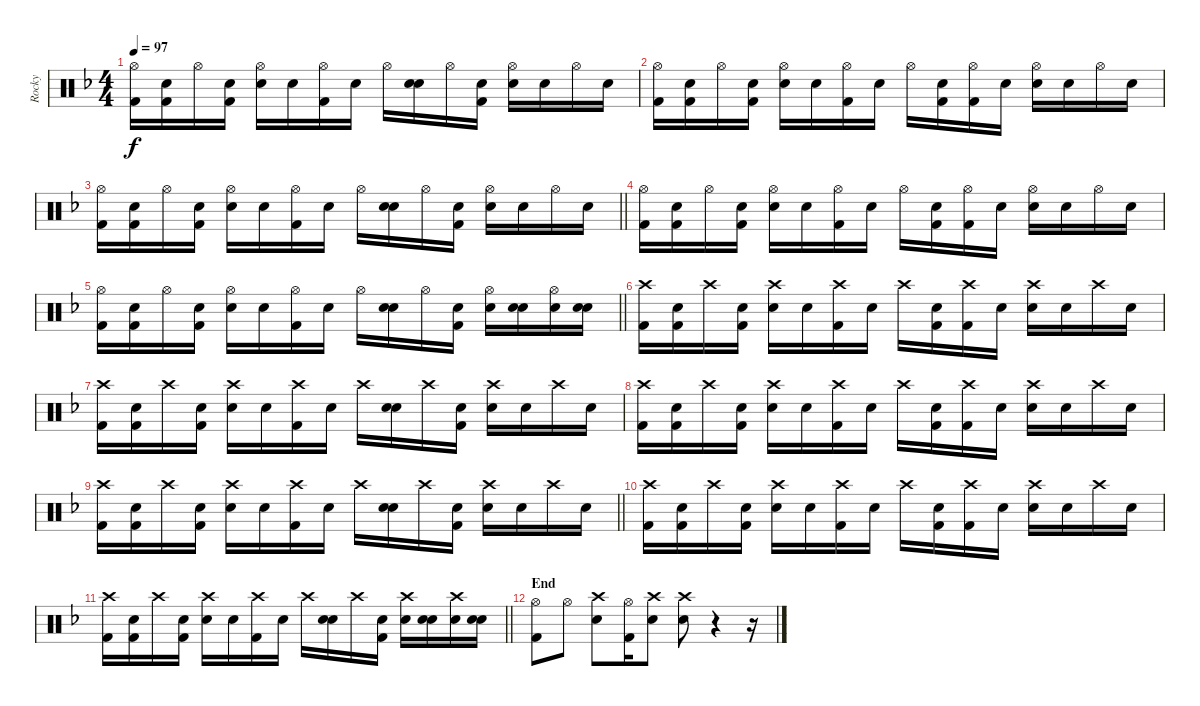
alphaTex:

\track ("Rocky" "Rocky") {instrument percussion}
\staff {score}
\articulation defaults
\ts (4 4)
\tempo 97
\clef neutral
\ks f
("Hi-Hat (open)" "Kick (hit) 2").16{dy f} ("Snare (hit)" "Kick (hit) 2").16 "Hi-Hat (open)".16 ("Snare (hit)" "Kick (hit) 2").16 ("Hi-Hat (open)" "Snare (hit) 2").16 "Snare (hit)".16 ("Hi-Hat (open)" "Kick (hit) 2").16 "Snare (hit)".16 "Hi-Hat (open)".16 ("Snare (hit)" "Snare (hit) 2").16 "Hi-Hat (open)".16 ("Snare (hit)" "Kick (hit) 2").16 ("Hi-Hat (open)" "Snare (hit) 2").16 "Snare (hit)".16 "Hi-Hat (open)".16 "Snare (hit)".16 |
("Hi-Hat (open)" "Kick (hit) 2").16 ("Snare (hit)" "Kick (hit) 2").16 "Hi-Hat (open)".16 ("Snare (hit)" "Kick (hit) 2").16 ("Hi-Hat (open)" "Snare (hit) 2").16 "Snare (hit)".16 ("Hi-Hat (open)" "Kick (hit) 2").16 "Snare (hit)".16 "Hi-Hat (open)".16 ("Snare (hit)" "Kick (hit) 2").16 ("Hi-Hat (open)" "Kick (hit) 2").16 "Snare (hit)".16 ("Hi-Hat (open)" "Snare (hit) 2").16 "Snare (hit)".16 "Hi-Hat (open)".16 "Snare (hit)".16 |
\barLineRight lightlight
("Hi-Hat (open)" "Kick (hit) 2").16 ("Snare (hit)" "Kick (hit) 2").16 "Hi-Hat (open)".16 ("Snare (hit)" "Kick (hit) 2").16 ("Hi-Hat (open)" "Snare (hit) 2").16 "Snare (hit)".16 ("Hi-Hat (open)" "Kick (hit) 2").16 "Snare (hit)".16 "Hi-Hat (open)".16 ("Snare (hit)" "Snare (hit) 2").16 "Hi-Hat (open)".16 ("Snare (hit)" "Kick (hit) 2").16 ("Hi-Hat (open)" "Snare (hit) 2").16 "Snare (hit)".16 "Hi-Hat (open)".16 "Snare (hit)".16 |
("Hi-Hat (open)" "Kick (hit) 2").16 ("Snare (hit)" "Kick (hit) 2").16 "Hi-Hat (open)".16 ("Snare (hit)" "Kick (hit) 2").16 ("Hi-Hat (open)" "Snare (hit) 2").16 "Snare (hit)".16 ("Hi-Hat (open)" "Kick (hit) 2").16 "Snare (hit)".16 "Hi-Hat (open)".16 ("Snare (hit)" "Kick (hit) 2").16 ("Hi-Hat (open)" "Kick (hit) 2").16 "Snare (hit)".16 ("Hi-Hat (open)" "Snare (hit) 2").16 "Snare (hit)".16 "Hi-Hat (open)".16 "Snare (hit)".16 |
\barLineRight lightlight
("Hi-Hat (open)" "Kick (hit) 2").16 ("Snare (hit)" "Kick (hit) 2").16 "Hi-Hat (open)".16 ("Snare (hit)" "Kick (hit) 2").16 ("Hi-Hat (open)" "Snare (hit) 2").16 "Snare (hit)".16 ("Hi-Hat (open)" "Kick (hit) 2").16 "Snare (hit)".16 "Hi-Hat (open)".16 ("Snare (hit)" "Snare (hit) 2").16 "Hi-Hat (open)".16 ("Snare (hit)" "Kick (hit) 2").16 ("Hi-Hat (open)" "Snare (hit) 2").16 ("Snare (hit)" "Snare (hit) 2").16 ("Hi-Hat (open)" "Snare (hit) 2").16 ("Snare (hit)" "Snare (hit) 2").16 |
("Crash high (hit)" "Kick (hit) 2").16 ("Snare (hit)" "Kick (hit) 2").16 "Crash high (hit)".16 ("Snare (hit)" "Kick (hit) 2").16 ("Crash high (hit)" "Snare (hit) 2").16 "Snare (hit)".16 ("Crash high (hit)" "Kick (hit) 2").16 "Snare (hit)".16 "Crash high (hit)".16 ("Snare (hit)" "Kick (hit) 2").16 ("Crash high (hit)" "Kick (hit) 2").16 "Snare (hit)".16 ("Crash high (hit)" "Snare (hit) 2").16 "Snare (hit)".16 "Crash high (hit)".16 "Snare (hit)".16 |
("Crash high (hit)" "Kick (hit) 2").16 ("Snare (hit)" "Kick (hit) 2").16 "Crash high (hit)".16 ("Snare (hit)" "Kick (hit) 2").16 ("Crash high (hit)" "Snare (hit) 2").16 "Snare (hit)".16 ("Crash high (hit)" "Kick (hit) 2").16 "Snare (hit)".16 "Crash high (hit)".16 ("Snare (hit)" "Snare (hit) 2").16 "Crash high (hit)".16 ("Snare (hit)" "Kick (hit) 2").16 ("Crash high (hit)" "Snare (hit) 2").16 "Snare (hit)".16 "Crash high (hit)".16 "Snare (hit)".16 |
("Crash high (hit)" "Kick (hit) 2").16 ("Snare (hit)" "Kick (hit) 2").16 "Crash high (hit)".16 ("Snare (hit)" "Kick (hit) 2").16 ("Crash high (hit)" "Snare (hit) 2").16 "Snare (hit)".16 ("Crash high (hit)" "Kick (hit) 2").16 "Snare (hit)".16 "Crash high (hit)".16 ("Snare (hit)" "Kick (hit) 2").16 ("Crash high (hit)" "Kick (hit) 2").16 "Snare (hit)".16 ("Crash high (hit)" "Snare (hit) 2").16 "Snare (hit)".16 "Crash high (hit)".16 "Snare (hit)".16 |
\barLineRight lightlight
("Crash high (hit)" "Kick (hit) 2").16 ("Snare (hit)" "Kick (hit) 2").16 "Crash high (hit)".16 ("Snare (hit)" "Kick (hit) 2").16 ("Crash high (hit)" "Snare (hit) 2").16 "Snare (hit)".16 ("Crash high (hit)" "Kick (hit) 2").16 "Snare (hit)".16 "Crash high (hit)".16 ("Snare (hit)" "Snare (hit) 2").16 "Crash high (hit)".16 ("Snare (hit)" "Kick (hit) 2").16 ("Crash high (hit)" "Snare (hit) 2").16 "Snare (hit)".16 "Crash high (hit)".16 "Snare (hit)".16 |
("Crash high (hit)" "Kick (hit) 2").16 ("Snare (hit)" "Kick (hit) 2").16 "Crash high (hit)".16 ("Snare (hit)" "Kick (hit) 2").16 ("Crash high (hit)" "Snare (hit) 2").16 "Snare (hit)".16 ("Crash high (hit)" "Kick (hit) 2").16 "Snare (hit)".16 "Crash high (hit)".16 ("Snare (hit)" "Kick (hit) 2").16 ("Crash high (hit)" "Kick (hit) 2").16 "Snare (hit)".16 ("Crash high (hit)" "Snare (hit) 2").16 "Snare (hit)".16 "Crash high (hit)".16 "Snare (hit)".16 |
\barLineRight lightlight
("Crash high (hit)" "Kick (hit) 2").16 ("Snare (hit)" "Kick (hit) 2").16 "Crash high (hit)".16 ("Snare (hit)" "Kick (hit) 2").16 ("Crash high (hit)" "Snare (hit) 2").16 "Snare (hit)".16 ("Crash high (hit)" "Kick (hit) 2").16 "Snare (hit)".16 "Crash high (hit)".16 ("Snare (hit)" "Snare (hit) 2").16 "Crash high (hit)".16 ("Snare (hit)" "Kick (hit) 2").16 ("Crash high (hit)" "Snare (hit) 2").16 ("Snare (hit)" "Snare (hit) 2").16 ("Crash high (hit)" "Snare (hit) 2").16 ("Snare (hit)" "Snare (hit) 2").16 |
\section ("" "End")
("Hi-Hat (open)" "Kick (hit) 2").8 "Hi-Hat (open)".8 ("Crash high (hit)" "Snare (hit) 2").8 ("Hi-Hat (open)" "Kick (hit) 2").16 ("Crash high (hit)" "Snare (hit) 2").8 ("Crash high (hit)" "Snare (hit) 2").8 r.4 r.16
